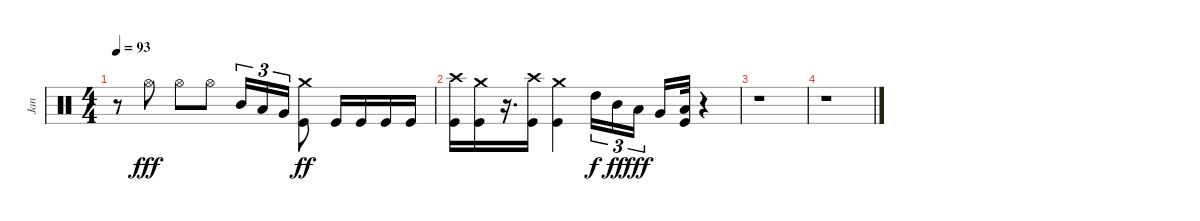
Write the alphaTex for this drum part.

\track ("Jan" "Jan") {instrument percussion}
\staff {score}
\articulation defaults
\ts (4 4)
\tempo 93
\clef neutral
\ks c
r.8{dy fff} "Hi-Hat (open)".8 "Hi-Hat (open)".8 "Hi-Hat (open)".8 "Mid Tom (hit)".16{tu (3 2)} "Low Tom (hit)".16{tu (3 2)} "Very Low Tom (hit)".16{tu (3 2)} ("Kick (hit)" "Crash medium (hit)").8{dy ff} "Kick (hit)".16 "Kick (hit)".16 "Kick (hit)".16 "Kick (hit)".16 |
("Kick (hit)" "Crash high (hit)").16 ("Kick (hit)" "Crash medium (hit)").16 r.16{d} ("Kick (hit)" "Crash high (hit)").16 ("Kick (hit)" "Crash medium (hit)").4 "High Tom (hit)".16{tu (3 2) dy f} "Mid Tom (hit)".16{tu (3 2) dy ff} "Low Tom (hit)".16{tu (3 2) dy fff} "Very Low Tom (hit)".16 ("Kick (hit)" "Low Floor Tom (hit)").32 r.4 |
r.1 |
r.1
